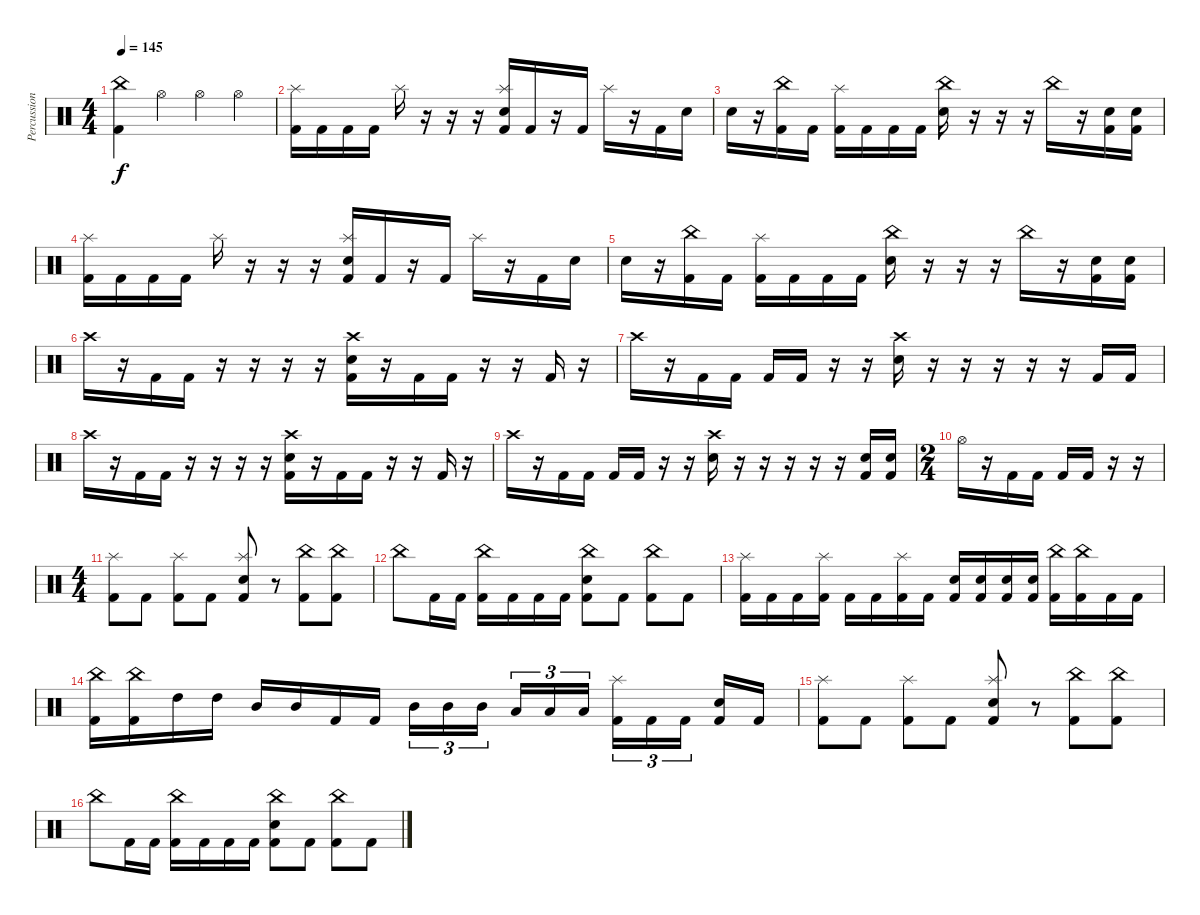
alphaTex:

\track ("Percussion" "Percussion") {instrument percussion}
\staff {score}
\articulation defaults
\ts (4 4)
\tempo 145
\clef neutral
\ks c
("China (hit)" "Kick (hit) 2").4{dy f} "Hi-Hat (open)".4 "Hi-Hat (open)".4 "Hi-Hat (open)".4 |
("Splash (hit)" "Kick (hit) 2").16 "Kick (hit) 2".16 "Kick (hit) 2".16 "Kick (hit) 2".16 "Splash (hit)".16 r.16 r.16 r.16 ("Splash (hit)" "Snare (hit) 2" "Kick (hit) 2").16 "Kick (hit) 2".16 r.16 "Kick (hit) 2".16 "Splash (hit)".16 r.16 "Kick (hit) 2".16 "Snare (hit) 2".16 |
"Snare (hit) 2".16 r.16 ("China (hit)" "Kick (hit) 2").16 "Kick (hit) 2".16 ("Splash (hit)" "Kick (hit) 2").16 "Kick (hit) 2".16 "Kick (hit) 2".16 "Kick (hit) 2".16 ("China (hit)" "Snare (hit) 2").16 r.16 r.16 r.16 "China (hit)".16 r.16 ("Snare (hit) 2" "Kick (hit) 2").16 ("Snare (hit) 2" "Kick (hit) 2").16 |
("Splash (hit)" "Kick (hit) 2").16 "Kick (hit) 2".16 "Kick (hit) 2".16 "Kick (hit) 2".16 "Splash (hit)".16 r.16 r.16 r.16 ("Splash (hit)" "Snare (hit) 2" "Kick (hit) 2").16 "Kick (hit) 2".16 r.16 "Kick (hit) 2".16 "Splash (hit)".16 r.16 "Kick (hit) 2".16 "Snare (hit) 2".16 |
"Snare (hit) 2".16 r.16 ("China (hit)" "Kick (hit) 2").16 "Kick (hit) 2".16 ("Splash (hit)" "Kick (hit) 2").16 "Kick (hit) 2".16 "Kick (hit) 2".16 "Kick (hit) 2".16 ("China (hit)" "Snare (hit) 2").16 r.16 r.16 r.16 "China (hit)".16 r.16 ("Snare (hit) 2" "Kick (hit) 2").16 ("Snare (hit) 2" "Kick (hit) 2").16 |
"Crash high (hit)".16 r.16 "Kick (hit) 2".16 "Kick (hit) 2".16 r.16 r.16 r.16 r.16 ("Crash high (hit)" "Snare (hit) 2" "Kick (hit) 2").16 r.16 "Kick (hit) 2".16 "Kick (hit) 2".16 r.16 r.16 "Kick (hit) 2".16 r.16 |
"Crash high (hit)".16 r.16 "Kick (hit) 2".16 "Kick (hit) 2".16 "Kick (hit) 2".16 "Kick (hit) 2".16 r.16 r.16 ("Crash high (hit)" "Snare (hit) 2").16 r.16 r.16 r.16 r.16 r.16 "Kick (hit) 2".16 "Kick (hit) 2".16 |
"Crash high (hit)".16 r.16 "Kick (hit) 2".16 "Kick (hit) 2".16 r.16 r.16 r.16 r.16 ("Crash high (hit)" "Snare (hit) 2" "Kick (hit) 2").16 r.16 "Kick (hit) 2".16 "Kick (hit) 2".16 r.16 r.16 "Kick (hit) 2".16 r.16 |
"Crash high (hit)".16 r.16 "Kick (hit) 2".16 "Kick (hit) 2".16 "Kick (hit) 2".16 "Kick (hit) 2".16 r.16 r.16 ("Crash high (hit)" "Snare (hit) 2").16 r.16 r.16 r.16 r.16 r.16 ("Snare (hit) 2" "Kick (hit) 2").16 ("Snare (hit) 2" "Kick (hit) 2").16 |
\ts (2 4)
"Hi-Hat (open)".16 r.16 "Kick (hit) 2".16 "Kick (hit) 2".16 "Kick (hit) 2".16 "Kick (hit) 2".16 r.16 r.16 |
\ts (4 4)
("Splash (hit)" "Kick (hit) 2").8 "Kick (hit) 2".8 ("Splash (hit)" "Kick (hit) 2").8 "Kick (hit) 2".8 ("Splash (hit)" "Snare (hit) 2" "Kick (hit) 2").8 r.8 ("China (hit)" "Kick (hit) 2").8 ("China (hit)" "Kick (hit) 2").8 |
"China (hit)".8 "Kick (hit) 2".16 "Kick (hit) 2".16 ("China (hit)" "Kick (hit) 2").16 "Kick (hit) 2".16 "Kick (hit) 2".16 "Kick (hit) 2".16 ("China (hit)" "Snare (hit) 2" "Kick (hit) 2").8 "Kick (hit) 2".8 ("China (hit)" "Kick (hit) 2").8 "Kick (hit) 2".8 |
("Splash (hit)" "Kick (hit) 2").16 "Kick (hit) 2".16 "Kick (hit) 2".16 ("Splash (hit)" "Kick (hit) 2").16 "Kick (hit) 2".16 "Kick (hit) 2".16 ("Splash (hit)" "Kick (hit) 2").16 "Kick (hit) 2".16 ("Snare (hit) 2" "Kick (hit) 2").16 ("Snare (hit) 2" "Kick (hit) 2").16 ("Snare (hit) 2" "Kick (hit) 2").16 ("Snare (hit) 2" "Kick (hit) 2").16 ("China (hit)" "Kick (hit) 2").16 ("China (hit)" "Kick (hit) 2").16 "Kick (hit) 2".16 "Kick (hit) 2".16 |
("China (hit)" "Kick (hit) 2").16 ("China (hit)" "Kick (hit) 2").16 "High Tom (hit)".16 "High Tom (hit)".16 "Mid Tom (hit)".16 "Mid Tom (hit)".16 "Kick (hit) 2".16 "Kick (hit) 2".16 "Mid Tom (hit)".16{tu (3 2)} "Mid Tom (hit)".16{tu (3 2)} "Mid Tom (hit)".16{tu (3 2) beam splitsecondary} "Low Tom (hit)".16{tu (3 2)} "Low Tom (hit)".16{tu (3 2)} "Low Tom (hit)".16{tu (3 2)} ("Splash (hit)" "Kick (hit) 2").16{tu (3 2)} "Kick (hit) 2".16{tu (3 2)} "Kick (hit) 2".16{tu (3 2) beam splitsecondary} ("Snare (hit) 2" "Kick (hit) 2").16 "Kick (hit) 2".16 |
("Splash (hit)" "Kick (hit) 2").8 "Kick (hit) 2".8 ("Splash (hit)" "Kick (hit) 2").8 "Kick (hit) 2".8 ("Splash (hit)" "Snare (hit) 2" "Kick (hit) 2").8 r.8 ("China (hit)" "Kick (hit) 2").8 ("China (hit)" "Kick (hit) 2").8 |
"China (hit)".8 "Kick (hit) 2".16 "Kick (hit) 2".16 ("China (hit)" "Kick (hit) 2").16 "Kick (hit) 2".16 "Kick (hit) 2".16 "Kick (hit) 2".16 ("China (hit)" "Snare (hit) 2" "Kick (hit) 2").8 "Kick (hit) 2".8 ("China (hit)" "Kick (hit) 2").8 "Kick (hit) 2".8
